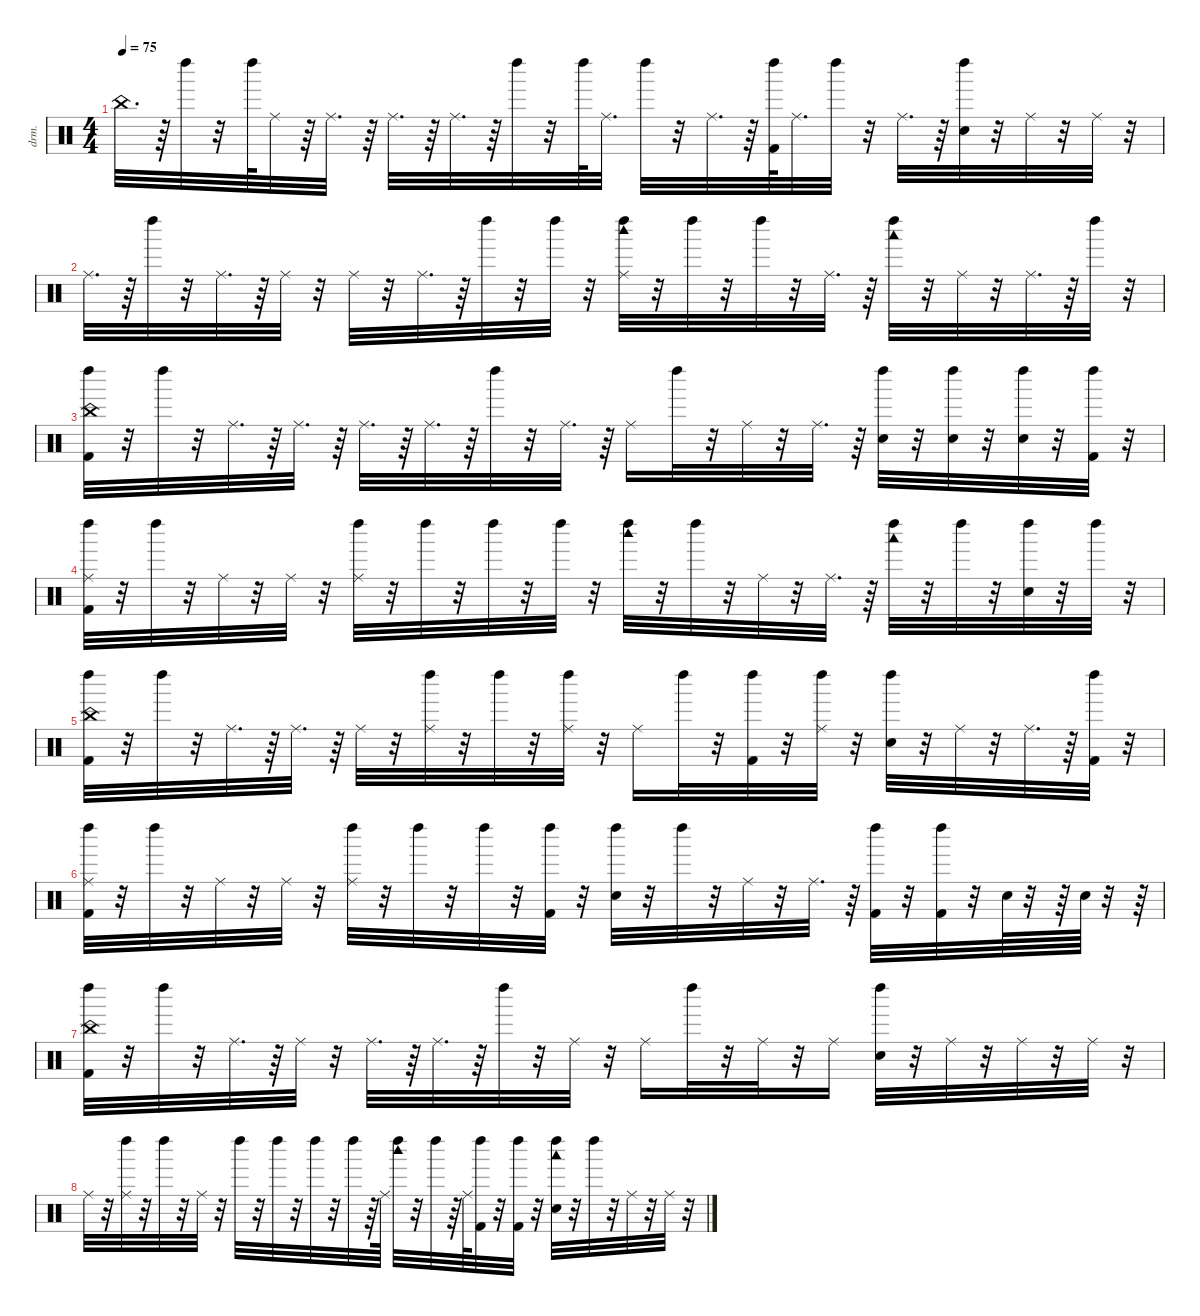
\defaultSystemsLayout 4
\hideDynamics
\bracketExtendMode nobrackets
\otherSystemsTrackNameOrientation horizontal
\track ("Drums" "drm.") {instrument percussion}
\staff {score}
\articulation defaults
\ts (4 4)
\tempo 75
\clef neutral
\ks c "China (hit)".32{d dy f}
r.64 "Left Maraca (hit)".32 r.32 "Left Maraca (hit)".64 "Ride (middle)".32 r.64 "Ride (middle)".32{d} r.64 "Ride (middle)".32{d} r.64 "Ride (middle)".32{d} r.64 "Left Maraca (hit)".32 r.32 "Left Maraca (hit)".64 "Ride (middle)".32{d} "Left Maraca (hit)".32 r.32 "Ride (middle)".32{d} r.64 ("Kick (hit) 2" "Left Maraca (hit)").64 "Ride (middle)".32{d} "Left Maraca (hit)".32 r.32 "Ride (middle)".32{d} r.64 ("Snare (hit) 2" "Left Maraca (hit)").32 r.32 "Ride (middle)".32 r.32 "Ride (middle)".32 r.32 |
"Ride (middle)".32{d} r.64 "Left Maraca (hit)".32 r.32 "Ride (middle)".32{d} r.64 "Ride (middle)".32 r.32 "Ride (middle)".32 r.32 "Ride (middle)".32{d} r.64 "Left Maraca (hit)".32 r.32 "Left Maraca (hit)".32 r.32 ("Ride (middle)" "Woodblock high (hit)" "Left Maraca (hit)").32 r.32 "Left Maraca (hit)".32 r.32 "Left Maraca (hit)".32 r.32 "Ride (middle)".32{d} r.64 ("Woodblock low (hit)" "Left Maraca (hit)").32 r.32 "Ride (middle)".32 r.32 "Ride (middle)".32{d} r.64 "Left Maraca (hit)".32 r.32 |
("China (hit)" "Kick (hit) 2" "Left Maraca (hit)").32 r.32 "Left Maraca (hit)".32 r.32 "Ride (middle)".32{d} r.64 "Ride (middle)".32{d} r.64 "Ride (middle)".32{d} r.64 "Ride (middle)".32{d} r.64 "Left Maraca (hit)".32 r.32 "Ride (middle)".32{d} r.64 "Ride (middle)".16 "Left Maraca (hit)".32 r.32 "Ride (middle)".32 r.32 "Ride (middle)".32{d} r.64 ("Snare (hit) 2" "Left Maraca (hit)").32 r.32 ("Snare (hit) 2" "Left Maraca (hit)").32 r.32 ("Snare (hit) 2" "Left Maraca (hit)").32 r.32 ("Kick (hit) 2" "Left Maraca (hit)").32 r.32 |
("Ride (middle)" "Kick (hit) 2" "Left Maraca (hit)").32 r.32 "Left Maraca (hit)".32 r.32 "Ride (middle)".32 r.32 "Ride (middle)".32 r.32 ("Ride (middle)" "Left Maraca (hit)").32 r.32 "Left Maraca (hit)".32 r.32 "Left Maraca (hit)".32 r.32 "Left Maraca (hit)".32 r.32 ("Woodblock high (hit)" "Left Maraca (hit)").32 r.32 "Left Maraca (hit)".32 r.32 "Ride (middle)".32 r.32 "Ride (middle)".32{d} r.64 ("Woodblock low (hit)" "Left Maraca (hit)").32 r.32 "Left Maraca (hit)".32 r.32 ("Hand Clap (hit)" "Left Maraca (hit)").32 r.32 "Left Maraca (hit)".32 r.32 |
("China (hit)" "Kick (hit) 2" "Left Maraca (hit)").32 r.32 "Left Maraca (hit)".32 r.32 "Ride (middle)".32{d} r.64 "Ride (middle)".32{d} r.64 "Ride (middle)".32 r.32 ("Ride (middle)" "Left Maraca (hit)").32 r.32 "Left Maraca (hit)".32 r.32 ("Ride (middle)" "Left Maraca (hit)").32 r.32 "Ride (middle)".16 "Left Maraca (hit)".32 r.32 ("Kick (hit) 2" "Left Maraca (hit)").32 r.32 ("Ride (middle)" "Left Maraca (hit)").32 r.32 ("Snare (hit) 2" "Left Maraca (hit)").32 r.32 "Ride (middle)".32 r.32 "Ride (middle)".32{d} r.64 ("Kick (hit) 2" "Left Maraca (hit)").32 r.32 |
("Ride (middle)" "Kick (hit) 2" "Left Maraca (hit)").32 r.32 "Left Maraca (hit)".32 r.32 "Ride (middle)".32 r.32 "Ride (middle)".32 r.32 ("Ride (middle)" "Left Maraca (hit)").32 r.32 "Left Maraca (hit)".32 r.32 "Left Maraca (hit)".32 r.32 ("Kick (hit) 2" "Left Maraca (hit)").32 r.32 ("Snare (hit) 2" "Left Maraca (hit)").32 r.32 "Left Maraca (hit)".32 r.32 "Ride (middle)".32 r.32 "Ride (middle)".32{d} r.64 ("Kick (hit) 2" "Left Maraca (hit)").32 r.32 ("Left Maraca (hit)" "Kick (hit) 2").32 r.32 "Snare (hit) 2".64 r.32 r.64 "Snare (hit) 2".64 r.32 r.64 |
("China (hit)" "Kick (hit) 2" "Left Maraca (hit)").32 r.32 "Left Maraca (hit)".32 r.32 "Ride (middle)".32{d} r.64 "Ride (middle)".32 r.32 "Ride (middle)".32{d} r.64 "Ride (middle)".32{d} r.64 "Left Maraca (hit)".32 r.32 "Ride (middle)".32 r.32 "Ride (middle)".16 "Left Maraca (hit)".32 r.32 "Ride (middle)".32 r.32 "Ride (middle)".16 ("Snare (hit) 2" "Left Maraca (hit)").32 r.32 "Ride (middle)".32 r.32 "Ride (middle)".32 r.32 "Ride (middle)".32 r.32 |
"Ride (middle)".32 r.32 ("Ride (middle)" "Left Maraca (hit)").32 r.32 "Left Maraca (hit)".32 r.32 "Ride (middle)".32 r.32 "Left Maraca (hit)".32 r.32 "Left Maraca (hit)".32 r.32 "Left Maraca (hit)".32 r.32 "Left Maraca (hit)".32 r.64 "Ride (middle)".64 ("Woodblock high (hit)" "Left Maraca (hit)").32 r.32 "Left Maraca (hit)".32 r.64 "Ride (middle)".64 ("Kick (hit) 2" "Left Maraca (hit)").32 r.32 ("Kick (hit) 2" "Left Maraca (hit)").32 r.32 ("Snare (hit) 2" "Left Maraca (hit)" "Woodblock low (hit)").32 r.32 "Left Maraca (hit)".32 r.32 "Ride (middle)".32 r.32 "Ride (middle)".32 r.32
